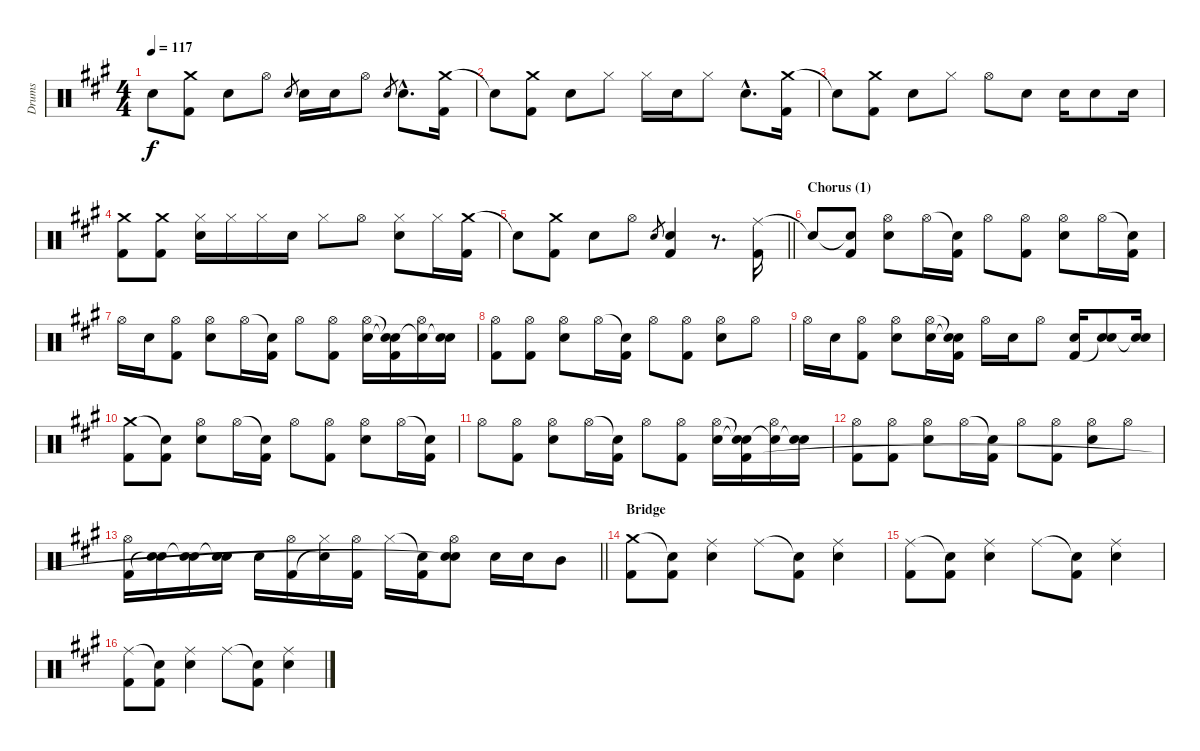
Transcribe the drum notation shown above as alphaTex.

\track ("Drums" "Drums") {instrument percussion}
\staff {score}
\articulation defaults
\ts (4 4)
\tempo 117
\clef neutral
\ks f#minor "Snare (hit)"{t}.8{dy f}
("Crash medium (hit)" "Kick (hit) 2").8 "Electric Snare (hit)".8 "Hi-Hat (open)".8 "Electric Snare (hit)".8{gr} "Electric Snare (hit)".16 "Electric Snare (hit)".16 "Hi-Hat (open)".8 "Electric Snare (hit)".8{gr} "Electric Snare (hit)"{hac}.8{d} ("Crash medium (hit)" "Kick (hit) 2").16 |
"Snare (hit)"{t}.8 ("Crash medium (hit)" "Kick (hit) 2").8 "Electric Snare (hit)".8 "Hi-Hat (closed)".8 "Hi-Hat (closed)".16 "Electric Snare (hit)".16 "Hi-Hat (closed)".8 "Electric Snare (hit)"{hac}.8{d} ("Crash medium (hit)" "Kick (hit) 2").16 |
"Snare (hit)"{t}.8 ("Crash medium (hit)" "Kick (hit) 2").8 "Electric Snare (hit)".8 "Hi-Hat (closed)".8 "Hi-Hat (open)".8 "Electric Snare (hit)".8 "Electric Snare (hit)".16 "Electric Snare (hit)".8 "Electric Snare (hit)".16 |
("Crash medium (hit)" "Kick (hit) 2").8 ("Crash medium (hit)" "Kick (hit) 2").8 ("Hi-Hat (closed)" "Electric Snare (hit)").16 "Hi-Hat (closed)".16 "Hi-Hat (closed)".16 "Electric Snare (hit)".16 "Hi-Hat (closed)".8 "Hi-Hat (open)".8 ("Hi-Hat (closed)" "Electric Snare (hit)").8 "Hi-Hat (closed)".16 ("Crash medium (hit)" "Kick (hit) 2").16 |
\barLineRight lightlight "Snare (hit)"{t}.8
("Crash medium (hit)" "Kick (hit) 2").8 "Electric Snare (hit)".8 "Hi-Hat (open)".8 "Electric Snare (hit)".8{gr} ("Electric Snare (hit)" "Kick (hit) 2").4 r.8{d} ("Ride (middle)" "Kick (hit) 2").16 |
\section ("" "Chorus (1)")
"Snare (hit)"{t}.8 ("Snare (hit)"{t} "Kick (hit) 2").8 ("Hi-Hat (open)" "Electric Snare (hit)").8 "Hi-Hat (open)".16 ("Snare (hit)"{t} "Kick (hit) 2").16 "Hi-Hat (open)".8 ("Hi-Hat (open)" "Kick (hit) 2").8 ("Hi-Hat (open)" "Electric Snare (hit)").8 "Hi-Hat (open)".16 ("Snare (hit)"{t} "Kick (hit) 2").16 |
"Hi-Hat (open)".16 "Electric Snare (hit)".16 ("Hi-Hat (open)" "Kick (hit) 2").8 ("Hi-Hat (open)" "Electric Snare (hit)").8 "Hi-Hat (open)".16 ("Snare (hit)"{t} "Kick (hit) 2").16 "Hi-Hat (open)".8 ("Hi-Hat (open)" "Kick (hit) 2").8 ("Hi-Hat (open)" "Electric Snare (hit)").16 ("Snare (hit)"{t} "Snare (hit)"{t} "Kick (hit) 2").16 ("Hi-Hat (open)" "Snare (hit)"{t}).16 ("Electric Snare (hit)" "Snare (hit)"{t}).16 |
("Hi-Hat (open)" "Kick (hit) 2").8 ("Hi-Hat (open)" "Kick (hit) 2").8 ("Hi-Hat (open)" "Electric Snare (hit)").8 "Hi-Hat (open)".16 ("Snare (hit)"{t} "Kick (hit) 2").16 "Hi-Hat (open)".8 ("Hi-Hat (open)" "Kick (hit) 2").8 ("Hi-Hat (open)" "Electric Snare (hit)").8 "Hi-Hat (open)".8 |
"Hi-Hat (open)".16 "Electric Snare (hit)".16 ("Hi-Hat (open)" "Kick (hit) 2").8 ("Hi-Hat (open)" "Electric Snare (hit)").8 ("Hi-Hat (open)" "Electric Snare (hit)").16 ("Snare (hit)"{t} "Snare (hit)"{t} "Kick (hit) 2").16 "Hi-Hat (open)".16 "Electric Snare (hit)".16 "Hi-Hat (open)".8 ("Electric Snare (hit)" "Kick (hit) 2").16 ("Electric Snare (hit)" "Snare (hit)"{t}).8 ("Electric Snare (hit)" "Snare (hit)"{t}).16 |
("Crash medium (hit)" "Kick (hit) 2").8 ("Snare (hit)"{t} "Kick (hit) 2").8 ("Hi-Hat (open)" "Electric Snare (hit)").8 "Hi-Hat (open)".16 ("Snare (hit)"{t} "Kick (hit) 2").16 "Hi-Hat (open)".8 ("Hi-Hat (open)" "Kick (hit) 2").8 ("Hi-Hat (open)" "Electric Snare (hit)").8 "Hi-Hat (open)".16 ("Snare (hit)"{t} "Kick (hit) 2").16 |
"Hi-Hat (open)".8 ("Hi-Hat (open)" "Kick (hit) 2").8 ("Hi-Hat (open)" "Electric Snare (hit)").8 "Hi-Hat (open)".16 ("Snare (hit)"{t} "Kick (hit) 2").16 "Hi-Hat (open)".8 ("Hi-Hat (open)" "Kick (hit) 2").8 ("Hi-Hat (open)" "Electric Snare (hit)").16 ("Snare (hit)"{t} "Snare (hit)"{t} "Kick (hit) 2").16 ("Hi-Hat (open)" "Snare (hit)"{t}).16 ("Electric Snare (hit)" "Snare (hit)"{t}).16 |
("Hi-Hat (open)" "Kick (hit) 2").8 ("Hi-Hat (open)" "Kick (hit) 2").8 ("Hi-Hat (open)" "Electric Snare (hit)").8 "Hi-Hat (open)".16 ("Snare (hit)"{t} "Kick (hit) 2").16 "Hi-Hat (open)".8 ("Hi-Hat (open)" "Kick (hit) 2").8 ("Hi-Hat (open)" "Electric Snare (hit)").8 "Hi-Hat (open)".8 |
\barLineRight lightlight
("Hi-Hat (open)" "Kick (hit) 2").16 ("Electric Snare (hit)" "Snare (hit)"{t}).16 ("Electric Snare (hit)" "Snare (hit)"{t}).16 ("Electric Snare (hit)" "Snare (hit)"{t}).16 "Electric Snare (hit)".16 ("Hi-Hat (open)" "Kick (hit) 2").16 ("Hi-Hat (closed)" "Snare (hit)"{t}).16 ("Hi-Hat (open)" "Kick (hit) 2").16 "Hi-Hat (closed)".16 ("Snare (hit)"{t} "Kick (hit) 2").16 ("Hi-Hat (open)" "Electric Snare (hit)" "Snare (hit)"{t}).8 "Electric Snare (hit)".16 "Electric Snare (hit)".16 "Mid Tom (hit)".8 |
\section ("" "Bridge")
("Crash medium (hit)" "Kick (hit) 2").8 ("Snare (hit)"{t} "Kick (hit) 2").8 ("Ride (middle)" "Electric Snare (hit)").4 "Ride (middle)".8 ("Snare (hit)"{t} "Kick (hit) 2").8 ("Ride (middle)" "Electric Snare (hit)").4 |
("Ride (middle)" "Kick (hit) 2").8 ("Snare (hit)"{t} "Kick (hit) 2").8 ("Ride (middle)" "Electric Snare (hit)").4 "Ride (middle)".8 ("Snare (hit)"{t} "Kick (hit) 2").8 ("Ride (middle)" "Electric Snare (hit)").4 |
("Ride (middle)" "Kick (hit) 2").8 ("Snare (hit)"{t} "Kick (hit) 2").8 ("Ride (middle)" "Electric Snare (hit)").4 "Ride (middle)".8 ("Snare (hit)"{t} "Kick (hit) 2").8 ("Ride (middle)" "Electric Snare (hit)").4
